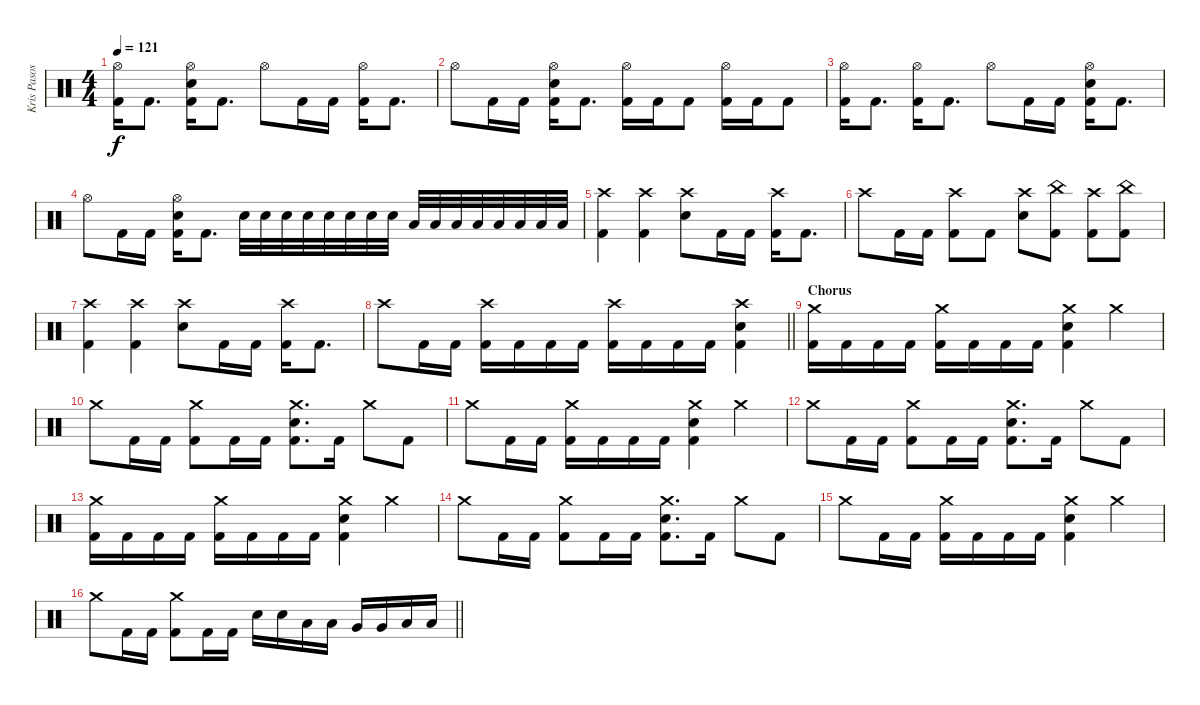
\track ("Kris Pasos" "Kris Pasos") {instrument percussion}
\staff {score}
\articulation defaults
\ts (4 4)
\tempo 121
\clef neutral
\ks c
("Hi-Hat (open)" "Kick (hit) 2").16{dy f} "Kick (hit) 2".8{d} ("Hi-Hat (open)" "Snare (hit) 2" "Kick (hit) 2").16 "Kick (hit) 2".8{d} "Hi-Hat (open)".8 "Kick (hit) 2".16 "Kick (hit) 2".16 ("Hi-Hat (open)" "Kick (hit) 2").16 "Kick (hit) 2".8{d} |
"Hi-Hat (open)".8 "Kick (hit) 2".16 "Kick (hit) 2".16 ("Hi-Hat (open)" "Snare (hit) 2" "Kick (hit) 2").16 "Kick (hit) 2".8{d} ("Hi-Hat (open)" "Kick (hit) 2").16 "Kick (hit) 2".16 "Kick (hit) 2".8 ("Hi-Hat (open)" "Kick (hit) 2").16 "Kick (hit) 2".16 "Kick (hit) 2".8 |
("Hi-Hat (open)" "Kick (hit) 2").16 "Kick (hit) 2".8{d} ("Hi-Hat (open)" "Kick (hit) 2").16 "Kick (hit) 2".8{d} "Hi-Hat (open)".8 "Kick (hit) 2".16 "Kick (hit) 2".16 ("Hi-Hat (open)" "Snare (hit) 2" "Kick (hit) 2").16 "Kick (hit) 2".8{d} |
"Hi-Hat (open)".8 "Kick (hit) 2".16 "Kick (hit) 2".16 ("Hi-Hat (open)" "Snare (hit) 2" "Kick (hit) 2").16 "Kick (hit) 2".8{d} "Snare (hit) 2".32 "Snare (hit) 2".32 "Snare (hit) 2".32 "Snare (hit) 2".32 "Snare (hit) 2".32 "Snare (hit) 2".32 "Snare (hit) 2".32 "Snare (hit) 2".32 "Low Tom (hit)".32 "Low Tom (hit)".32 "Low Tom (hit)".32 "Low Tom (hit)".32 "Low Floor Tom (hit)".32 "Low Floor Tom (hit)".32 "Low Floor Tom (hit)".32 "Low Floor Tom (hit)".32 |
("Crash high (hit)" "Kick (hit) 2").4 ("Crash high (hit)" "Kick (hit) 2").4 ("Crash high (hit)" "Snare (hit) 2").8 "Kick (hit) 2".16 "Kick (hit) 2".16 ("Crash high (hit)" "Kick (hit) 2").16 "Kick (hit) 2".8{d} |
"Crash high (hit)".8 "Kick (hit) 2".16 "Kick (hit) 2".16 ("Crash high (hit)" "Kick (hit) 2").8 "Kick (hit) 2".8 ("Crash high (hit)" "Snare (hit) 2").8 ("China (hit)" "Kick (hit) 2").8 ("Crash high (hit)" "Kick (hit) 2").8 ("China (hit)" "Kick (hit) 2").8 |
("Crash high (hit)" "Kick (hit) 2").4 ("Crash high (hit)" "Kick (hit) 2").4 ("Crash high (hit)" "Snare (hit) 2").8 "Kick (hit) 2".16 "Kick (hit) 2".16 ("Crash high (hit)" "Kick (hit) 2").16 "Kick (hit) 2".8{d} |
\barLineRight lightlight "Crash high (hit)".8 "Kick (hit) 2".16 "Kick (hit) 2".16
("Crash high (hit)" "Kick (hit) 2").16 "Kick (hit) 2".16 "Kick (hit) 2".16 "Kick (hit) 2".16 ("Crash high (hit)" "Kick (hit) 2").16 "Kick (hit) 2".16 "Kick (hit) 2".16 "Kick (hit) 2".16 ("Crash high (hit)" "Snare (hit) 2" "Kick (hit) 2").4 |
\section ("" "Chorus")
("Crash medium (hit)" "Kick (hit) 2").16 "Kick (hit) 2".16 "Kick (hit) 2".16 "Kick (hit) 2".16 ("Crash medium (hit)" "Kick (hit) 2").16 "Kick (hit) 2".16 "Kick (hit) 2".16 "Kick (hit) 2".16 ("Crash medium (hit)" "Snare (hit) 2" "Kick (hit) 2").4 "Crash medium (hit)".4 |
"Crash medium (hit)".8 "Kick (hit) 2".16 "Kick (hit) 2".16 ("Crash medium (hit)" "Kick (hit) 2").8 "Kick (hit) 2".16 "Kick (hit) 2".16 ("Crash medium (hit)" "Snare (hit) 2" "Kick (hit) 2").8{d} "Kick (hit) 2".16 "Crash medium (hit)".8 "Kick (hit) 2".8 |
"Crash medium (hit)".8 "Kick (hit) 2".16 "Kick (hit) 2".16 ("Crash medium (hit)" "Kick (hit) 2").16 "Kick (hit) 2".16 "Kick (hit) 2".16 "Kick (hit) 2".16 ("Crash medium (hit)" "Snare (hit) 2" "Kick (hit) 2").4 "Crash medium (hit)".4 |
"Crash medium (hit)".8 "Kick (hit) 2".16 "Kick (hit) 2".16 ("Crash medium (hit)" "Kick (hit) 2").8 "Kick (hit) 2".16 "Kick (hit) 2".16 ("Crash medium (hit)" "Snare (hit) 2" "Kick (hit) 2").8{d} "Kick (hit) 2".16 "Crash medium (hit)".8 "Kick (hit) 2".8 |
("Crash medium (hit)" "Kick (hit) 2").16 "Kick (hit) 2".16 "Kick (hit) 2".16 "Kick (hit) 2".16 ("Crash medium (hit)" "Kick (hit) 2").16 "Kick (hit) 2".16 "Kick (hit) 2".16 "Kick (hit) 2".16 ("Crash medium (hit)" "Snare (hit) 2" "Kick (hit) 2").4 "Crash medium (hit)".4 |
"Crash medium (hit)".8 "Kick (hit) 2".16 "Kick (hit) 2".16 ("Crash medium (hit)" "Kick (hit) 2").8 "Kick (hit) 2".16 "Kick (hit) 2".16 ("Crash medium (hit)" "Snare (hit) 2" "Kick (hit) 2").8{d} "Kick (hit) 2".16 "Crash medium (hit)".8 "Kick (hit) 2".8 |
"Crash medium (hit)".8 "Kick (hit) 2".16 "Kick (hit) 2".16 ("Crash medium (hit)" "Kick (hit) 2").16 "Kick (hit) 2".16 "Kick (hit) 2".16 "Kick (hit) 2".16 ("Crash medium (hit)" "Snare (hit) 2" "Kick (hit) 2").4 "Crash medium (hit)".4 |
\barLineRight lightlight "Crash medium (hit)".8 "Kick (hit) 2".16 "Kick (hit) 2".16
("Crash medium (hit)" "Kick (hit) 2").8 "Kick (hit) 2".16 "Kick (hit) 2".16 "Snare (hit) 2".16 "Snare (hit) 2".16 "Low Floor Tom (hit)".16 "Low Floor Tom (hit)".16 "Very Low Tom (hit)".16 "Very Low Tom (hit)".16 "Low Floor Tom (hit)".16 "Low Floor Tom (hit)".16
